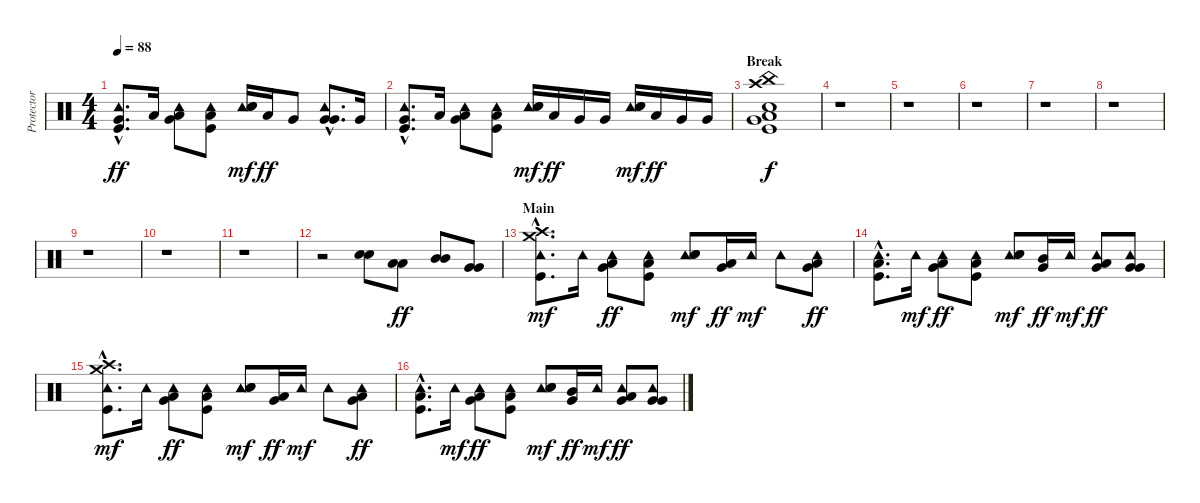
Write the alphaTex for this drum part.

\track ("Protector (Drums)" "Protector ") {instrument percussion}
\staff {score}
\articulation defaults
\ts (4 4)
\tempo 88
\clef neutral
\ks c
("Tambourine (hit)"{hac} "Very Low Tom (hit)"{hac} "Kick (hit)"{hac}).8{d dy ff} "Low Tom (hit)".16 ("Tambourine (hit)" "Low Tom (hit)" "Very Low Tom (hit)").8{bu 120} ("Tambourine (hit)" "Low Floor Tom (hit)" "Kick (hit)").8 ("Tambourine (hit)" "Snare (hit) 2" "Electric Snare (hit)").16{dy mf} "Low Tom (hit)".16{dy ff} "Very Low Tom (hit)".8 ("Tambourine (hit)"{hac} "Very Low Tom (hit)"{hac} "Very Low Tom (hit)"{hac}).8{d bu 120} "Very Low Tom (hit)".16 |
("Tambourine (hit)"{hac} "Very Low Tom (hit)"{hac} "Kick (hit)"{hac}).8{d} "Low Tom (hit)".16 ("Tambourine (hit)" "Low Tom (hit)" "Very Low Tom (hit)").8{bu 120} ("Tambourine (hit)" "Low Floor Tom (hit)" "Kick (hit)").8 ("Tambourine (hit)" "Electric Snare (hit)" "Snare (hit) 2").16{dy mf} "Low Tom (hit)".16{dy ff} "Very Low Tom (hit)".16 "Very Low Tom (hit)".16 ("Tambourine (hit)" "Electric Snare (hit)" "Snare (hit) 2").16{dy mf} "Low Tom (hit)".16{dy ff} "Very Low Tom (hit)".16 "Very Low Tom (hit)".16 |
\section ("" "Break")
("Crash high (hit)" "China (hit)" "Low Tom (hit)" "Very Low Tom (hit)" "Snare (hit) 2" "Kick (hit)").1{dy f} |
r.1 |
r.1 |
r.1 |
r.1 |
r.1 |
r.1 |
r.1 |
r.1 |
r.2 ("Electric Snare (hit)" "Snare (hit) 2").8 ("Low Tom (hit)" "Low Tom (hit)").8{bu 120 dy ff} ("Mid Tom (hit)" "Mid Tom (hit)").8{bu 120} ("Very Low Tom (hit)" "Very Low Tom (hit)").8{bu 120} |
\section ("" "Main")
("Crash high (hit)"{hac} "Crash medium (hit)"{hac} "Tambourine (hit)"{hac} "Kick (hit)"{hac}).8{d dy mf} "Tambourine (hit)".16 ("Tambourine (hit)" "Low Tom (hit)" "Very Low Tom (hit)").8{bu 120 dy ff} ("Tambourine (hit)" "Low Floor Tom (hit)" "Kick (hit)").8 ("Tambourine (hit)" "Electric Snare (hit)" "Snare (hit) 2").8{dy mf} ("Low Tom (hit)" "Very Low Tom (hit)").16{bu 120 dy ff} "Tambourine (hit)".16{dy mf} "Tambourine (hit)".8 ("Tambourine (hit)" "Low Tom (hit)" "Very Low Tom (hit)").8{bu 120 dy ff} |
("Tambourine (hit)"{hac} "Low Floor Tom (hit)"{hac} "Kick (hit)"{hac}).8{d} "Tambourine (hit)".16{dy mf} ("Tambourine (hit)" "Low Tom (hit)" "Very Low Tom (hit)").8{bu 120 dy ff} ("Tambourine (hit)" "Low Floor Tom (hit)" "Kick (hit)").8 ("Tambourine (hit)" "Electric Snare (hit)" "Snare (hit) 2").8{dy mf} ("Mid Tom (hit)" "Very Low Tom (hit)").16{bu 120 dy ff} "Tambourine (hit)".16{dy mf} ("Tambourine (hit)" "Low Tom (hit)" "Very Low Tom (hit)").8{bu 120 dy ff} ("Tambourine (hit)" "Very Low Tom (hit)" "Very Low Tom (hit)").8{bu 120} |
("Crash high (hit)"{hac} "Crash medium (hit)"{hac} "Tambourine (hit)"{hac} "Kick (hit)"{hac}).8{d dy mf} "Tambourine (hit)".16 ("Tambourine (hit)" "Low Tom (hit)" "Very Low Tom (hit)").8{bu 120 dy ff} ("Tambourine (hit)" "Low Floor Tom (hit)" "Kick (hit)").8 ("Tambourine (hit)" "Electric Snare (hit)" "Snare (hit) 2").8{dy mf} ("Low Tom (hit)" "Very Low Tom (hit)").16{bu 120 dy ff} "Tambourine (hit)".16{dy mf} "Tambourine (hit)".8 ("Tambourine (hit)" "Low Tom (hit)" "Very Low Tom (hit)").8{bu 120 dy ff} |
("Tambourine (hit)"{hac} "Low Floor Tom (hit)"{hac} "Kick (hit)"{hac}).8{d} "Tambourine (hit)".16{dy mf} ("Tambourine (hit)" "Low Tom (hit)" "Very Low Tom (hit)").8{bu 120 dy ff} ("Tambourine (hit)" "Low Floor Tom (hit)" "Kick (hit)").8 ("Tambourine (hit)" "Electric Snare (hit)" "Snare (hit) 2").8{dy mf} ("Mid Tom (hit)" "Very Low Tom (hit)").16{bu 120 dy ff} "Tambourine (hit)".16{dy mf} ("Tambourine (hit)" "Low Tom (hit)" "Very Low Tom (hit)").8{bu 120 dy ff} ("Tambourine (hit)" "Very Low Tom (hit)" "Very Low Tom (hit)").8{bu 120}
